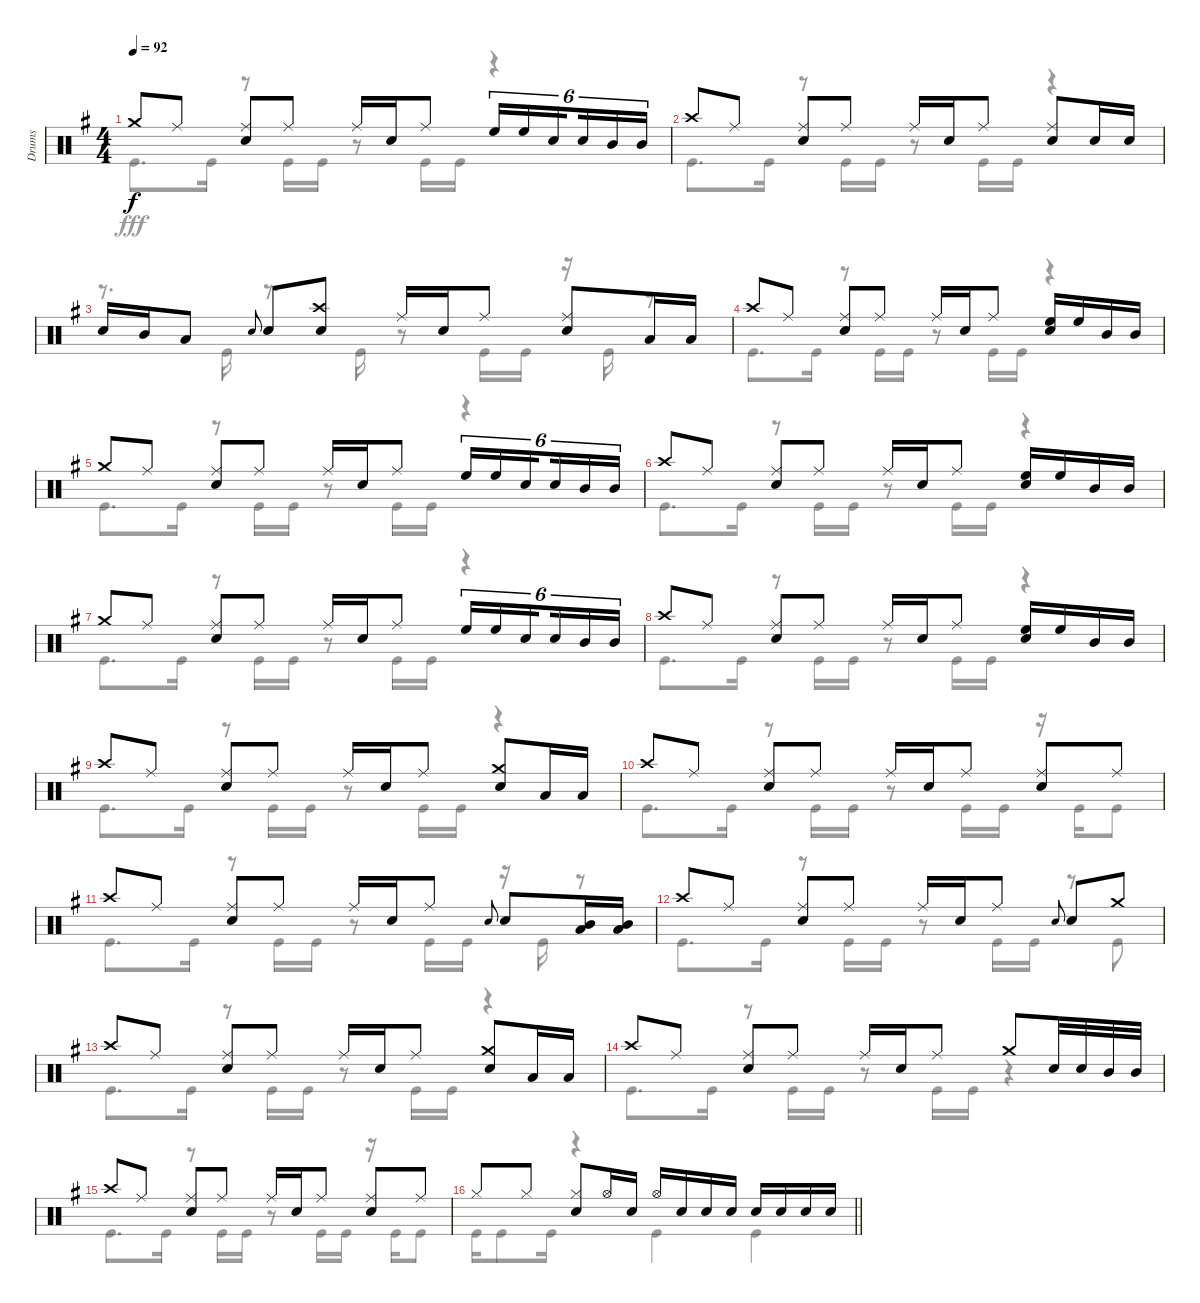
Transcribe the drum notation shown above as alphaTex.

\track ("Drums" "Drums") {instrument percussion}
\staff {score}
\articulation defaults
\voice
\ts (4 4)
\tempo 92
\clef neutral
\ks g "Crash medium (hit)".8{dy f} "Ride (middle)".8
("Snare (hit) 2" "Ride (middle)").8 "Ride (middle)".8 "Ride (middle)".16 "Snare (hit) 2".16 "Ride (middle)".8 "High Floor Tom (hit)".16{tu (6 4)} "High Floor Tom (hit)".16{tu (6 4)} "Snare (hit) 2".16{tu (6 4) beam splitsecondary} "Snare (hit) 2".16{tu (6 4)} "Mid Tom (hit)".16{tu (6 4)} "Mid Tom (hit)".16{tu (6 4)} |
"Crash high (hit)".8 "Ride (middle)".8 ("Ride (middle)" "Snare (hit) 2").8 "Ride (middle)".8 "Ride (middle)".16 "Snare (hit) 2".16 "Ride (middle)".8 ("Ride (middle)" "Snare (hit) 2").8 "Snare (hit) 2".16 "Snare (hit) 2".16 |
"Snare (hit) 2".16 "Mid Tom (hit)".16 "Low Tom (hit)".8 "Snare (hit) 2".8{gr onbeat} "Snare (hit) 2".8 ("Snare (hit) 2" "Crash high (hit)").8 "Ride (middle)".16 "Snare (hit) 2".16 "Ride (middle)".8 ("Ride (middle)" "Snare (hit) 2").8 "Low Tom (hit)".16 "Low Tom (hit)".16 |
"Crash high (hit)".8 "Ride (middle)".8 ("Ride (middle)" "Snare (hit) 2").8 "Ride (middle)".8 "Ride (middle)".16 "Snare (hit) 2".16 "Ride (middle)".8 ("High Floor Tom (hit)" "Snare (hit) 2").16 "High Floor Tom (hit)".16 "Mid Tom (hit)".16 "Mid Tom (hit)".16 |
"Crash medium (hit)".8 "Ride (middle)".8 ("Snare (hit) 2" "Ride (middle)").8 "Ride (middle)".8 "Ride (middle)".16 "Snare (hit) 2".16 "Ride (middle)".8 "High Floor Tom (hit)".16{tu (6 4)} "High Floor Tom (hit)".16{tu (6 4)} "Snare (hit) 2".16{tu (6 4) beam splitsecondary} "Snare (hit) 2".16{tu (6 4)} "Mid Tom (hit)".16{tu (6 4)} "Mid Tom (hit)".16{tu (6 4)} |
"Crash high (hit)".8 "Ride (middle)".8 ("Ride (middle)" "Snare (hit) 2").8 "Ride (middle)".8 "Ride (middle)".16 "Snare (hit) 2".16 "Ride (middle)".8 ("High Floor Tom (hit)" "Snare (hit) 2").16 "High Floor Tom (hit)".16 "Mid Tom (hit)".16 "Mid Tom (hit)".16 |
"Crash medium (hit)".8 "Ride (middle)".8 ("Snare (hit) 2" "Ride (middle)").8 "Ride (middle)".8 "Ride (middle)".16 "Snare (hit) 2".16 "Ride (middle)".8 "High Floor Tom (hit)".16{tu (6 4)} "High Floor Tom (hit)".16{tu (6 4)} "Snare (hit) 2".16{tu (6 4) beam splitsecondary} "Snare (hit) 2".16{tu (6 4)} "Mid Tom (hit)".16{tu (6 4)} "Mid Tom (hit)".16{tu (6 4)} |
"Crash high (hit)".8 "Ride (middle)".8 ("Ride (middle)" "Snare (hit) 2").8 "Ride (middle)".8 "Ride (middle)".16 "Snare (hit) 2".16 "Ride (middle)".8 ("High Floor Tom (hit)" "Snare (hit) 2").16 "High Floor Tom (hit)".16 "Mid Tom (hit)".16 "Mid Tom (hit)".16 |
"Crash high (hit)".8 "Ride (middle)".8 ("Ride (middle)" "Snare (hit) 2").8 "Ride (middle)".8 "Ride (middle)".16 "Snare (hit) 2".16 "Ride (middle)".8 ("Crash medium (hit)" "Snare (hit) 2").8 "Low Tom (hit)".16 "Low Tom (hit)".16 |
"Crash high (hit)".8 "Ride (middle)".8 ("Ride (middle)" "Snare (hit) 2").8 "Ride (middle)".8 "Ride (middle)".16 "Snare (hit) 2".16 "Ride (middle)".8 ("Ride (middle)" "Snare (hit) 2").8 "Ride (middle)".8 |
"Crash high (hit)".8 "Ride (middle)".8 ("Ride (middle)" "Snare (hit) 2").8 "Ride (middle)".8 "Ride (middle)".16 "Snare (hit) 2".16 "Ride (middle)".8 "Snare (hit) 2".8{gr onbeat} "Snare (hit) 2".8 ("Mid Tom (hit)" "Low Tom (hit)").16 ("Mid Tom (hit)" "Low Tom (hit)").16 |
"Crash high (hit)".8 "Ride (middle)".8 ("Ride (middle)" "Snare (hit) 2").8 "Ride (middle)".8 "Ride (middle)".16 "Snare (hit) 2".16 "Ride (middle)".8 "Snare (hit) 2".8{gr onbeat} "Snare (hit) 2".8 "Crash medium (hit)".8 |
"Crash high (hit)".8 "Ride (middle)".8 ("Ride (middle)" "Snare (hit) 2").8 "Ride (middle)".8 "Ride (middle)".16 "Snare (hit) 2".16 "Ride (middle)".8 ("Crash medium (hit)" "Snare (hit) 2").8 "Low Tom (hit)".16 "Low Tom (hit)".16 |
"Crash high (hit)".8 "Ride (middle)".8 ("Ride (middle)" "Snare (hit) 2").8 "Ride (middle)".8 "Ride (middle)".16 "Snare (hit) 2".16 "Ride (middle)".8 "Crash medium (hit)".8 "Snare (hit) 2".32 "Snare (hit) 2".32 "Mid Tom (hit)".32 "Mid Tom (hit)".32 |
"Crash high (hit)".8 "Ride (middle)".8 ("Ride (middle)" "Snare (hit) 2").8 "Ride (middle)".8 "Ride (middle)".16 "Snare (hit) 2".16 "Ride (middle)".8 ("Ride (middle)" "Snare (hit) 2").8 "Ride (middle)".8 |
\barLineRight lightlight "Hi-Hat (closed)".8 "Hi-Hat (closed)".8
("Hi-Hat (closed)" "Snare (hit) 2").8 "Hi-Hat (open)".16 "Snare (hit) 2".16 "Hi-Hat (open)".16 "Snare (hit) 2".16 "Snare (hit) 2".16 "Snare (hit) 2".16 "Snare (hit) 2".16 "Snare (hit) 2".16 "Snare (hit) 2".16 "Snare (hit) 2".16
\voice
\clef neutral
\ottava regular
\simile none
\ks g "Kick (hit)".8{d dy fff} "Kick (hit)".16
r.8 "Kick (hit)".16 "Kick (hit)".16 r.8 "Kick (hit)".16 "Kick (hit)".16 r.4 |
"Kick (hit)".8{d} "Kick (hit)".16 r.8 "Kick (hit)".16 "Kick (hit)".16 r.8 "Kick (hit)".16 "Kick (hit)".16 r.4 |
r.8{d} "Kick (hit)".16 r.8{d} "Kick (hit)".16 r.8 "Kick (hit)".16 "Kick (hit)".16 r.16 "Kick (hit)".16 r.8 |
"Kick (hit)".8{d} "Kick (hit)".16 r.8 "Kick (hit)".16 "Kick (hit)".16 r.8 "Kick (hit)".16 "Kick (hit)".16 r.4 |
"Kick (hit)".8{d} "Kick (hit)".16 r.8 "Kick (hit)".16 "Kick (hit)".16 r.8 "Kick (hit)".16 "Kick (hit)".16 r.4 |
"Kick (hit)".8{d} "Kick (hit)".16 r.8 "Kick (hit)".16 "Kick (hit)".16 r.8 "Kick (hit)".16 "Kick (hit)".16 r.4 |
"Kick (hit)".8{d} "Kick (hit)".16 r.8 "Kick (hit)".16 "Kick (hit)".16 r.8 "Kick (hit)".16 "Kick (hit)".16 r.4 |
"Kick (hit)".8{d} "Kick (hit)".16 r.8 "Kick (hit)".16 "Kick (hit)".16 r.8 "Kick (hit)".16 "Kick (hit)".16 r.4 |
"Kick (hit)".8{d} "Kick (hit)".16 r.8 "Kick (hit)".16 "Kick (hit)".16 r.8 "Kick (hit)".16 "Kick (hit)".16 r.4 |
"Kick (hit)".8{d} "Kick (hit)".16 r.8 "Kick (hit)".16 "Kick (hit)".16 r.8 "Kick (hit)".16 "Kick (hit)".16 r.16 "Kick (hit)".16 "Kick (hit)".8 |
"Kick (hit)".8{d} "Kick (hit)".16 r.8 "Kick (hit)".16 "Kick (hit)".16 r.8 "Kick (hit)".16 "Kick (hit)".16 r.16 "Kick (hit)".16 r.8 |
"Kick (hit)".8{d} "Kick (hit)".16 r.8 "Kick (hit)".16 "Kick (hit)".16 r.8 "Kick (hit)".16 "Kick (hit)".16 r.8 "Kick (hit)".8 |
"Kick (hit)".8{d} "Kick (hit)".16 r.8 "Kick (hit)".16 "Kick (hit)".16 r.8 "Kick (hit)".16 "Kick (hit)".16 r.4 |
"Kick (hit)".8{d} "Kick (hit)".16 r.8 "Kick (hit)".16 "Kick (hit)".16 r.8 "Kick (hit)".16 "Kick (hit)".16 r.4 |
"Kick (hit)".8{d} "Kick (hit)".16 r.8 "Kick (hit)".16 "Kick (hit)".16 r.8 "Kick (hit)".16 "Kick (hit)".16 r.16 "Kick (hit)".16 "Kick (hit)".8 |
\barLineRight lightlight "Kick (hit)".16 "Kick (hit)".8 "Kick (hit)".16
r.4 "Kick (hit)".4 "Kick (hit)".4
